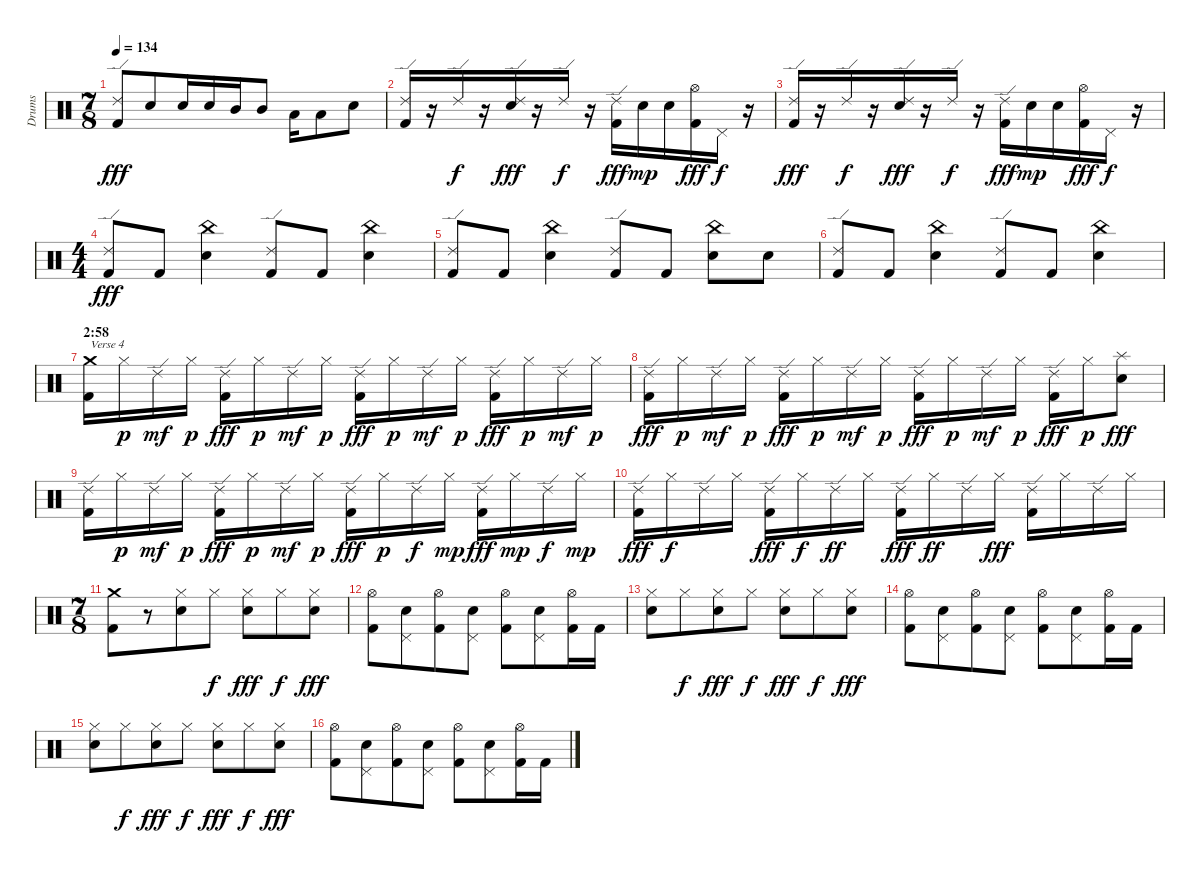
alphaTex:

\track ("Drums" "Drums") {instrument percussion}
\staff {score}
\articulation defaults
\ts (7 8)
\tempo 134
\clef neutral
\ks c
("Ride (edge) 2" "Kick (hit) 2").8{dy fff} "Snare (hit) 2".8 "Snare (hit) 2".16 "Snare (hit) 2".16 "Mid Tom (hit)".16 "Mid Tom (hit)".8 "Low Tom (hit)".16 "Low Tom (hit)".8 "Snare (hit) 2".8 |
("Ride (edge) 2" "Kick (hit) 2").16 r.16 "Ride (edge) 2".16{dy f} r.16 ("Ride (edge) 2" "Snare (hit) 2").16{dy fff} r.16 "Ride (edge) 2".16{dy f} r.16 ("Ride (edge) 2" "Kick (hit) 2").16{dy fff} "Snare (hit) 2".16{dy mp} "Snare (hit) 2".16 ("Hi-Hat (open)" "Kick (hit) 2").16{dy fff} "Pedal Hi-Hat (hit)".16{dy f} r.16 |
("Ride (edge) 2" "Kick (hit) 2").16{dy fff} r.16 "Ride (edge) 2".16{dy f} r.16 ("Ride (edge) 2" "Snare (hit) 2").16{dy fff} r.16 "Ride (edge) 2".16{dy f} r.16 ("Ride (edge) 2" "Kick (hit) 2").16{dy fff} "Snare (hit) 2".16{dy mp} "Snare (hit) 2".16 ("Hi-Hat (open)" "Kick (hit) 2").16{dy fff} "Pedal Hi-Hat (hit)".16{dy f} r.16 |
\ts (4 4)
("Ride (edge) 2" "Kick (hit) 2").8{dy fff} "Kick (hit) 2".8 ("China (hit)" "Snare (hit) 2").4 ("Ride (edge) 2" "Kick (hit) 2").8 "Kick (hit) 2".8 ("China (hit)" "Snare (hit) 2").4 |
("Ride (edge) 2" "Kick (hit) 2").8 "Kick (hit) 2".8 ("China (hit)" "Snare (hit) 2").4 ("Ride (edge) 2" "Kick (hit) 2").8 "Kick (hit) 2".8 ("China (hit)" "Snare (hit) 2").8 "Snare (hit) 2".8 |
("Ride (edge) 2" "Kick (hit) 2").8 "Kick (hit) 2".8 ("China (hit)" "Snare (hit) 2").4 ("Ride (edge) 2" "Kick (hit) 2").8 "Kick (hit) 2".8 ("China (hit)" "Snare (hit) 2").4 |
\section ("" "2:58")
("Crash medium (hit)" "Kick (hit) 2").16{txt "Verse 4"} "Hi-Hat (closed)".16{dy p} "Ride (edge) 2".16{dy mf} "Hi-Hat (closed)".16{dy p} ("Ride (edge) 2" "Kick (hit) 2").16{dy fff} "Hi-Hat (closed)".16{dy p} "Ride (edge) 2".16{dy mf} "Hi-Hat (closed)".16{dy p} ("Ride (edge) 2" "Kick (hit) 2").16{dy fff} "Hi-Hat (closed)".16{dy p} "Ride (edge) 2".16{dy mf} "Hi-Hat (closed)".16{dy p} ("Ride (edge) 2" "Kick (hit) 2").16{dy fff} "Hi-Hat (closed)".16{dy p} "Ride (edge) 2".16{dy mf} "Hi-Hat (closed)".16{dy p} |
("Ride (edge) 2" "Kick (hit) 2").16{dy fff} "Hi-Hat (closed)".16{dy p} "Ride (edge) 2".16{dy mf} "Hi-Hat (closed)".16{dy p} ("Ride (edge) 2" "Kick (hit) 2").16{dy fff} "Hi-Hat (closed)".16{dy p} "Ride (edge) 2".16{dy mf} "Hi-Hat (closed)".16{dy p} ("Ride (edge) 2" "Kick (hit) 2").16{dy fff} "Hi-Hat (closed)".16{dy p} "Ride (edge) 2".16{dy mf} "Hi-Hat (closed)".16{dy p} ("Ride (edge) 2" "Kick (hit) 2").16{dy fff} "Hi-Hat (closed)".16{dy p} ("Splash (hit)" "Snare (hit) 2").8{dy fff} |
("Ride (edge) 2" "Kick (hit) 2").16 "Hi-Hat (closed)".16{dy p} "Ride (edge) 2".16{dy mf} "Hi-Hat (closed)".16{dy p} ("Ride (edge) 2" "Kick (hit) 2").16{dy fff} "Hi-Hat (closed)".16{dy p} "Ride (edge) 2".16{dy mf} "Hi-Hat (closed)".16{dy p} ("Ride (edge) 2" "Kick (hit) 2").16{dy fff} "Hi-Hat (closed)".16{dy p} "Ride (edge) 2".16{dy f} "Hi-Hat (closed)".16{dy mp} ("Ride (edge) 2" "Kick (hit) 2").16{dy fff} "Hi-Hat (closed)".16{dy mp} "Ride (edge) 2".16{dy f} "Hi-Hat (closed)".16{dy mp} |
("Ride (edge) 2" "Kick (hit) 2").16{dy fff} "Hi-Hat (closed)".16{dy f} "Ride (edge) 2".16 "Hi-Hat (closed)".16 ("Ride (edge) 2" "Kick (hit) 2").16{dy fff} "Hi-Hat (closed)".16{dy f} "Ride (edge) 2".16{dy ff} "Hi-Hat (closed)".16 ("Ride (edge) 2" "Kick (hit) 2").16{dy fff} "Hi-Hat (closed)".16{dy ff} "Ride (edge) 2".16 "Hi-Hat (closed)".16{dy fff} ("Ride (edge) 2" "Kick (hit) 2").16 "Hi-Hat (closed)".16 "Ride (edge) 2".16 "Hi-Hat (closed)".16 |
\ts (7 8)
("Crash medium (hit)" "Kick (hit) 2").8 r.8 ("Hi-Hat (closed)" "Snare (hit) 2").8 "Hi-Hat (closed)".8{dy f} ("Hi-Hat (closed)" "Snare (hit) 2").8{dy fff} "Hi-Hat (closed)".8{dy f} ("Hi-Hat (closed)" "Snare (hit) 2").8{dy fff} |
("Hi-Hat (open)" "Kick (hit) 2").8 ("Pedal Hi-Hat (hit)" "Snare (hit) 2").8 ("Hi-Hat (open)" "Kick (hit) 2").8 ("Pedal Hi-Hat (hit)" "Snare (hit) 2").8 ("Hi-Hat (open)" "Kick (hit) 2").8 ("Pedal Hi-Hat (hit)" "Snare (hit) 2").8 ("Hi-Hat (open)" "Kick (hit) 2").16 "Kick (hit) 2".16 |
("Hi-Hat (closed)" "Snare (hit) 2").8 "Hi-Hat (closed)".8{dy f} ("Hi-Hat (closed)" "Snare (hit) 2").8{dy fff} "Hi-Hat (closed)".8{dy f} ("Hi-Hat (closed)" "Snare (hit) 2").8{dy fff} "Hi-Hat (closed)".8{dy f} ("Hi-Hat (closed)" "Snare (hit) 2").8{dy fff} |
("Hi-Hat (open)" "Kick (hit) 2").8 ("Pedal Hi-Hat (hit)" "Snare (hit) 2").8 ("Hi-Hat (open)" "Kick (hit) 2").8 ("Pedal Hi-Hat (hit)" "Snare (hit) 2").8 ("Hi-Hat (open)" "Kick (hit) 2").8 ("Pedal Hi-Hat (hit)" "Snare (hit) 2").8 ("Hi-Hat (open)" "Kick (hit) 2").16 "Kick (hit) 2".16 |
("Hi-Hat (closed)" "Snare (hit) 2").8 "Hi-Hat (closed)".8{dy f} ("Hi-Hat (closed)" "Snare (hit) 2").8{dy fff} "Hi-Hat (closed)".8{dy f} ("Hi-Hat (closed)" "Snare (hit) 2").8{dy fff} "Hi-Hat (closed)".8{dy f} ("Hi-Hat (closed)" "Snare (hit) 2").8{dy fff} |
("Hi-Hat (open)" "Kick (hit) 2").8 ("Pedal Hi-Hat (hit)" "Snare (hit) 2").8 ("Hi-Hat (open)" "Kick (hit) 2").8 ("Pedal Hi-Hat (hit)" "Snare (hit) 2").8 ("Hi-Hat (open)" "Kick (hit) 2").8 ("Pedal Hi-Hat (hit)" "Snare (hit) 2").8 ("Hi-Hat (open)" "Kick (hit) 2").16 "Kick (hit) 2".16
